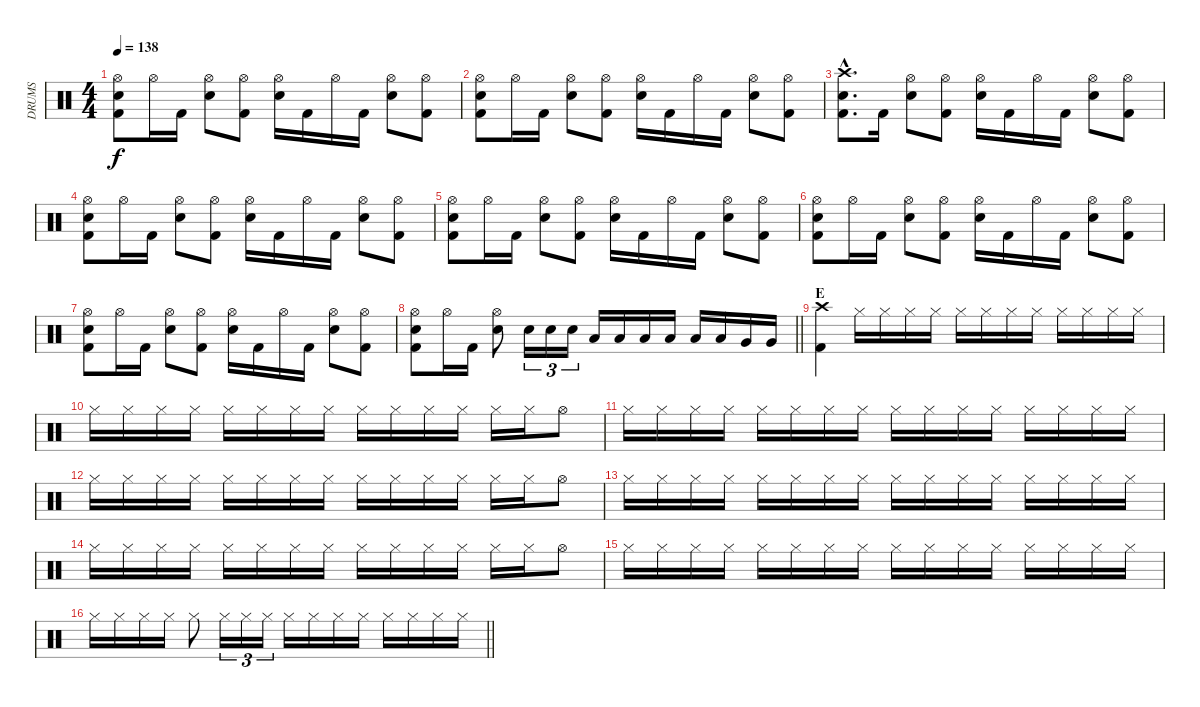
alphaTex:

\track ("DRUMS" "DRUMS") {instrument percussion}
\staff {score}
\articulation defaults
\ts (4 4)
\tempo 138
\clef neutral
\ks c
("Hi-Hat (open)" "Snare (hit) 2" "Kick (hit) 2").8{dy f} "Hi-Hat (open)".16 "Kick (hit) 2".16 ("Hi-Hat (open)" "Snare (hit) 2").8 ("Hi-Hat (open)" "Kick (hit) 2").8 ("Hi-Hat (open)" "Snare (hit) 2").16 "Kick (hit) 2".16 "Hi-Hat (open)".16 "Kick (hit) 2".16 ("Hi-Hat (open)" "Snare (hit) 2").8 ("Hi-Hat (open)" "Kick (hit) 2").8 |
("Hi-Hat (open)" "Snare (hit) 2" "Kick (hit) 2").8 "Hi-Hat (open)".16 "Kick (hit) 2".16 ("Hi-Hat (open)" "Snare (hit) 2").8 ("Hi-Hat (open)" "Kick (hit) 2").8 ("Hi-Hat (open)" "Snare (hit) 2").16 "Kick (hit) 2".16 "Hi-Hat (open)".16 "Kick (hit) 2".16 ("Hi-Hat (open)" "Snare (hit) 2").8 ("Hi-Hat (open)" "Kick (hit) 2").8 |
("Crash high (hit)"{hac} "Snare (hit) 2"{hac} "Kick (hit) 2"{hac}).8{d} "Kick (hit) 2".16 ("Hi-Hat (open)" "Snare (hit) 2").8 ("Hi-Hat (open)" "Kick (hit) 2").8 ("Hi-Hat (open)" "Snare (hit) 2").16 "Kick (hit) 2".16 "Hi-Hat (open)".16 "Kick (hit) 2".16 ("Hi-Hat (open)" "Snare (hit) 2").8 ("Hi-Hat (open)" "Kick (hit) 2").8 |
("Hi-Hat (open)" "Snare (hit) 2" "Kick (hit) 2").8 "Hi-Hat (open)".16 "Kick (hit) 2".16 ("Hi-Hat (open)" "Snare (hit) 2").8 ("Hi-Hat (open)" "Kick (hit) 2").8 ("Hi-Hat (open)" "Snare (hit) 2").16 "Kick (hit) 2".16 "Hi-Hat (open)".16 "Kick (hit) 2".16 ("Hi-Hat (open)" "Snare (hit) 2").8 ("Hi-Hat (open)" "Kick (hit) 2").8 |
("Hi-Hat (open)" "Snare (hit) 2" "Kick (hit) 2").8 "Hi-Hat (open)".16 "Kick (hit) 2".16 ("Hi-Hat (open)" "Snare (hit) 2").8 ("Hi-Hat (open)" "Kick (hit) 2").8 ("Hi-Hat (open)" "Snare (hit) 2").16 "Kick (hit) 2".16 "Hi-Hat (open)".16 "Kick (hit) 2".16 ("Hi-Hat (open)" "Snare (hit) 2").8 ("Hi-Hat (open)" "Kick (hit) 2").8 |
("Hi-Hat (open)" "Snare (hit) 2" "Kick (hit) 2").8 "Hi-Hat (open)".16 "Kick (hit) 2".16 ("Hi-Hat (open)" "Snare (hit) 2").8 ("Hi-Hat (open)" "Kick (hit) 2").8 ("Hi-Hat (open)" "Snare (hit) 2").16 "Kick (hit) 2".16 "Hi-Hat (open)".16 "Kick (hit) 2".16 ("Hi-Hat (open)" "Snare (hit) 2").8 ("Hi-Hat (open)" "Kick (hit) 2").8 |
("Hi-Hat (open)" "Snare (hit) 2" "Kick (hit) 2").8 "Hi-Hat (open)".16 "Kick (hit) 2".16 ("Hi-Hat (open)" "Snare (hit) 2").8 ("Hi-Hat (open)" "Kick (hit) 2").8 ("Hi-Hat (open)" "Snare (hit) 2").16 "Kick (hit) 2".16 "Hi-Hat (open)".16 "Kick (hit) 2".16 ("Hi-Hat (open)" "Snare (hit) 2").8 ("Hi-Hat (open)" "Kick (hit) 2").8 |
\barLineRight lightlight
("Hi-Hat (open)" "Snare (hit) 2" "Kick (hit) 2").8 "Hi-Hat (open)".16 "Kick (hit) 2".16 ("Hi-Hat (open)" "Snare (hit) 2").8 "Snare (hit) 2".16{tu (3 2)} "Snare (hit) 2".16{tu (3 2)} "Snare (hit) 2".16{tu (3 2)} "Low Tom (hit)".16 "Low Tom (hit)".16 "Low Tom (hit)".16 "Low Tom (hit)".16 "Low Tom (hit)".16 "Low Tom (hit)".16 "Very Low Tom (hit)".16 "Very Low Tom (hit)".16 |
\section ("" "E")
("Crash high (hit)" "Kick (hit) 2").4 "Hi-Hat (closed)".16 "Hi-Hat (closed)".16 "Hi-Hat (closed)".16 "Hi-Hat (closed)".16 "Hi-Hat (closed)".16 "Hi-Hat (closed)".16 "Hi-Hat (closed)".16 "Hi-Hat (closed)".16 "Hi-Hat (closed)".16 "Hi-Hat (closed)".16 "Hi-Hat (closed)".16 "Hi-Hat (closed)".16 |
"Hi-Hat (closed)".16 "Hi-Hat (closed)".16 "Hi-Hat (closed)".16 "Hi-Hat (closed)".16 "Hi-Hat (closed)".16 "Hi-Hat (closed)".16 "Hi-Hat (closed)".16 "Hi-Hat (closed)".16 "Hi-Hat (closed)".16 "Hi-Hat (closed)".16 "Hi-Hat (closed)".16 "Hi-Hat (closed)".16 "Hi-Hat (closed)".16 "Hi-Hat (closed)".16 "Hi-Hat (open)".8 |
"Hi-Hat (closed)".16 "Hi-Hat (closed)".16 "Hi-Hat (closed)".16 "Hi-Hat (closed)".16 "Hi-Hat (closed)".16 "Hi-Hat (closed)".16 "Hi-Hat (closed)".16 "Hi-Hat (closed)".16 "Hi-Hat (closed)".16 "Hi-Hat (closed)".16 "Hi-Hat (closed)".16 "Hi-Hat (closed)".16 "Hi-Hat (closed)".16 "Hi-Hat (closed)".16 "Hi-Hat (closed)".16 "Hi-Hat (closed)".16 |
"Hi-Hat (closed)".16 "Hi-Hat (closed)".16 "Hi-Hat (closed)".16 "Hi-Hat (closed)".16 "Hi-Hat (closed)".16 "Hi-Hat (closed)".16 "Hi-Hat (closed)".16 "Hi-Hat (closed)".16 "Hi-Hat (closed)".16 "Hi-Hat (closed)".16 "Hi-Hat (closed)".16 "Hi-Hat (closed)".16 "Hi-Hat (closed)".16 "Hi-Hat (closed)".16 "Hi-Hat (open)".8 |
"Hi-Hat (closed)".16 "Hi-Hat (closed)".16 "Hi-Hat (closed)".16 "Hi-Hat (closed)".16 "Hi-Hat (closed)".16 "Hi-Hat (closed)".16 "Hi-Hat (closed)".16 "Hi-Hat (closed)".16 "Hi-Hat (closed)".16 "Hi-Hat (closed)".16 "Hi-Hat (closed)".16 "Hi-Hat (closed)".16 "Hi-Hat (closed)".16 "Hi-Hat (closed)".16 "Hi-Hat (closed)".16 "Hi-Hat (closed)".16 |
"Hi-Hat (closed)".16 "Hi-Hat (closed)".16 "Hi-Hat (closed)".16 "Hi-Hat (closed)".16 "Hi-Hat (closed)".16 "Hi-Hat (closed)".16 "Hi-Hat (closed)".16 "Hi-Hat (closed)".16 "Hi-Hat (closed)".16 "Hi-Hat (closed)".16 "Hi-Hat (closed)".16 "Hi-Hat (closed)".16 "Hi-Hat (closed)".16 "Hi-Hat (closed)".16 "Hi-Hat (open)".8 |
"Hi-Hat (closed)".16 "Hi-Hat (closed)".16 "Hi-Hat (closed)".16 "Hi-Hat (closed)".16 "Hi-Hat (closed)".16 "Hi-Hat (closed)".16 "Hi-Hat (closed)".16 "Hi-Hat (closed)".16 "Hi-Hat (closed)".16 "Hi-Hat (closed)".16 "Hi-Hat (closed)".16 "Hi-Hat (closed)".16 "Hi-Hat (closed)".16 "Hi-Hat (closed)".16 "Hi-Hat (closed)".16 "Hi-Hat (closed)".16 |
\barLineRight lightlight "Hi-Hat (closed)".16 "Hi-Hat (closed)".16 "Hi-Hat (closed)".16 "Hi-Hat (closed)".16 "Hi-Hat (closed)".8 "Hi-Hat (closed)".16{tu (3 2)} "Hi-Hat (closed)".16{tu (3 2)} "Hi-Hat (closed)".16{tu (3 2)} "Hi-Hat (closed)".16 "Hi-Hat (closed)".16 "Hi-Hat (closed)".16 "Hi-Hat (closed)".16 "Hi-Hat (closed)".16 "Hi-Hat (closed)".16 "Hi-Hat (closed)".16 "Hi-Hat (closed)".16
